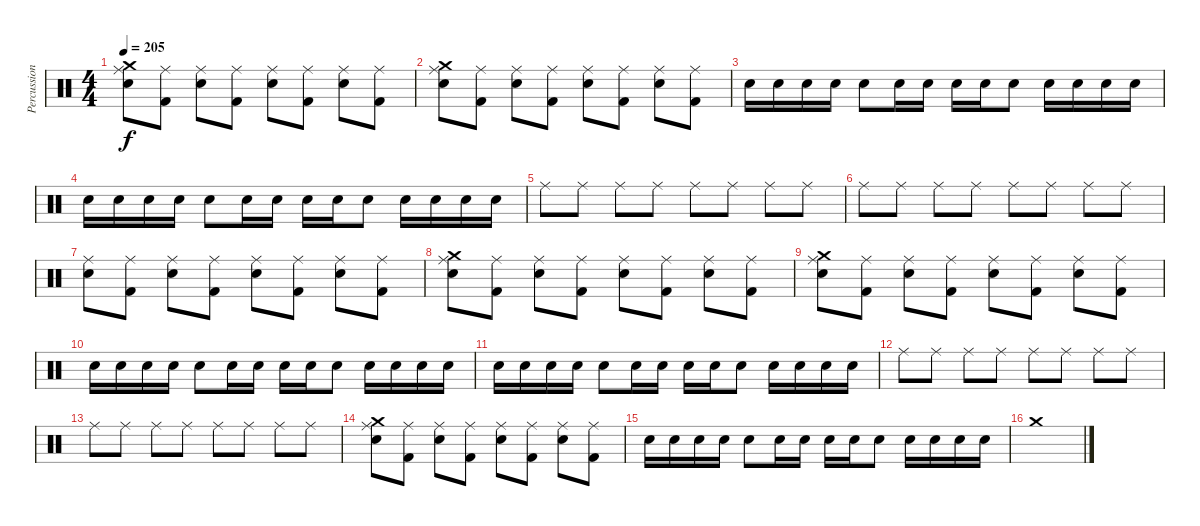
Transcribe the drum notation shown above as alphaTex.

\track ("Percussion" "Percussion") {instrument percussion}
\staff {score}
\articulation defaults
\ts (4 4)
\tempo 205
\clef neutral
\ks c
("Crash medium (hit)" "Snare (hit) 2" "Ride (middle)").8{dy f} ("Kick (hit) 2" "Ride (middle)").8 ("Snare (hit) 2" "Ride (middle)").8 ("Kick (hit) 2" "Ride (middle)").8 ("Snare (hit) 2" "Ride (middle)").8 ("Kick (hit) 2" "Ride (middle)").8 ("Snare (hit) 2" "Ride (middle)").8 ("Kick (hit) 2" "Ride (middle)").8 |
("Crash medium (hit)" "Snare (hit) 2" "Ride (middle)").8 ("Kick (hit) 2" "Ride (middle)").8 ("Snare (hit) 2" "Ride (middle)").8 ("Kick (hit) 2" "Ride (middle)").8 ("Snare (hit) 2" "Ride (middle)").8 ("Kick (hit) 2" "Ride (middle)").8 ("Snare (hit) 2" "Ride (middle)").8 ("Kick (hit) 2" "Ride (middle)").8 |
"Snare (hit) 2".16 "Snare (hit) 2".16 "Snare (hit) 2".16 "Snare (hit) 2".16 "Snare (hit) 2".8 "Snare (hit) 2".16 "Snare (hit) 2".16 "Snare (hit) 2".16 "Snare (hit) 2".16 "Snare (hit) 2".8 "Snare (hit) 2".16 "Snare (hit) 2".16 "Snare (hit) 2".16 "Snare (hit) 2".16 |
"Snare (hit) 2".16 "Snare (hit) 2".16 "Snare (hit) 2".16 "Snare (hit) 2".16 "Snare (hit) 2".8 "Snare (hit) 2".16 "Snare (hit) 2".16 "Snare (hit) 2".16 "Snare (hit) 2".16 "Snare (hit) 2".8 "Snare (hit) 2".16 "Snare (hit) 2".16 "Snare (hit) 2".16 "Snare (hit) 2".16 |
"Ride (middle)".8 "Ride (middle)".8 "Ride (middle)".8 "Ride (middle)".8 "Ride (middle)".8 "Ride (middle)".8 "Ride (middle)".8 "Ride (middle)".8 |
"Ride (middle)".8 "Ride (middle)".8 "Ride (middle)".8 "Ride (middle)".8 "Ride (middle)".8 "Ride (middle)".8 "Ride (middle)".8 "Ride (middle)".8 |
("Snare (hit) 2" "Ride (middle)").8 ("Kick (hit) 2" "Ride (middle)").8 ("Snare (hit) 2" "Ride (middle)").8 ("Kick (hit) 2" "Ride (middle)").8 ("Snare (hit) 2" "Ride (middle)").8 ("Kick (hit) 2" "Ride (middle)").8 ("Snare (hit) 2" "Ride (middle)").8 ("Kick (hit) 2" "Ride (middle)").8 |
("Crash medium (hit)" "Snare (hit) 2" "Ride (middle)").8 ("Kick (hit) 2" "Ride (middle)").8 ("Snare (hit) 2" "Ride (middle)").8 ("Kick (hit) 2" "Ride (middle)").8 ("Snare (hit) 2" "Ride (middle)").8 ("Kick (hit) 2" "Ride (middle)").8 ("Snare (hit) 2" "Ride (middle)").8 ("Kick (hit) 2" "Ride (middle)").8 |
("Crash medium (hit)" "Snare (hit) 2" "Ride (middle)").8 ("Kick (hit) 2" "Ride (middle)").8 ("Snare (hit) 2" "Ride (middle)").8 ("Kick (hit) 2" "Ride (middle)").8 ("Snare (hit) 2" "Ride (middle)").8 ("Kick (hit) 2" "Ride (middle)").8 ("Snare (hit) 2" "Ride (middle)").8 ("Kick (hit) 2" "Ride (middle)").8 |
"Snare (hit) 2".16 "Snare (hit) 2".16 "Snare (hit) 2".16 "Snare (hit) 2".16 "Snare (hit) 2".8 "Snare (hit) 2".16 "Snare (hit) 2".16 "Snare (hit) 2".16 "Snare (hit) 2".16 "Snare (hit) 2".8 "Snare (hit) 2".16 "Snare (hit) 2".16 "Snare (hit) 2".16 "Snare (hit) 2".16 |
"Snare (hit) 2".16 "Snare (hit) 2".16 "Snare (hit) 2".16 "Snare (hit) 2".16 "Snare (hit) 2".8 "Snare (hit) 2".16 "Snare (hit) 2".16 "Snare (hit) 2".16 "Snare (hit) 2".16 "Snare (hit) 2".8 "Snare (hit) 2".16 "Snare (hit) 2".16 "Snare (hit) 2".16 "Snare (hit) 2".16 |
"Ride (middle)".8 "Ride (middle)".8 "Ride (middle)".8 "Ride (middle)".8 "Ride (middle)".8 "Ride (middle)".8 "Ride (middle)".8 "Ride (middle)".8 |
"Ride (middle)".8 "Ride (middle)".8 "Ride (middle)".8 "Ride (middle)".8 "Ride (middle)".8 "Ride (middle)".8 "Ride (middle)".8 "Ride (middle)".8 |
("Crash medium (hit)" "Snare (hit) 2" "Ride (middle)").8 ("Kick (hit) 2" "Ride (middle)").8 ("Snare (hit) 2" "Ride (middle)").8 ("Kick (hit) 2" "Ride (middle)").8 ("Snare (hit) 2" "Ride (middle)").8 ("Kick (hit) 2" "Ride (middle)").8 ("Snare (hit) 2" "Ride (middle)").8 ("Kick (hit) 2" "Ride (middle)").8 |
"Snare (hit) 2".16 "Snare (hit) 2".16 "Snare (hit) 2".16 "Snare (hit) 2".16 "Snare (hit) 2".8 "Snare (hit) 2".16 "Snare (hit) 2".16 "Snare (hit) 2".16 "Snare (hit) 2".16 "Snare (hit) 2".8 "Snare (hit) 2".16 "Snare (hit) 2".16 "Snare (hit) 2".16 "Snare (hit) 2".16 |
"Crash medium (hit)".1
